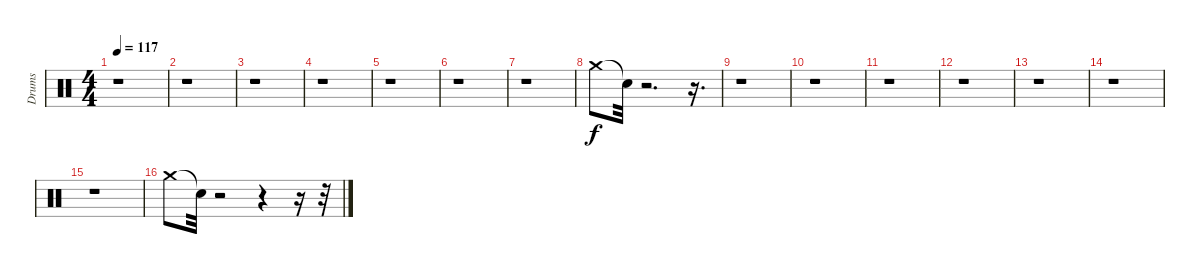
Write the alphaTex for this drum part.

\track ("Drums" "Drums") {instrument percussion}
\staff {score}
\articulation defaults
\ts (4 4)
\tempo 117
\clef neutral
\ks c
r.1{dy ff} |
r.1 |
r.1 |
r.1 |
r.1 |
r.1 |
r.1 |
"Crash medium (hit)".8{dy f} "Snare (hit)"{t}.32 r.2{d} r.16{d} |
r.1 |
r.1 |
r.1 |
r.1 |
r.1 |
r.1 |
r.1 |
"Crash medium (hit)".8 "Snare (hit)"{t}.32 r.2 r.4 r.16 r.32
